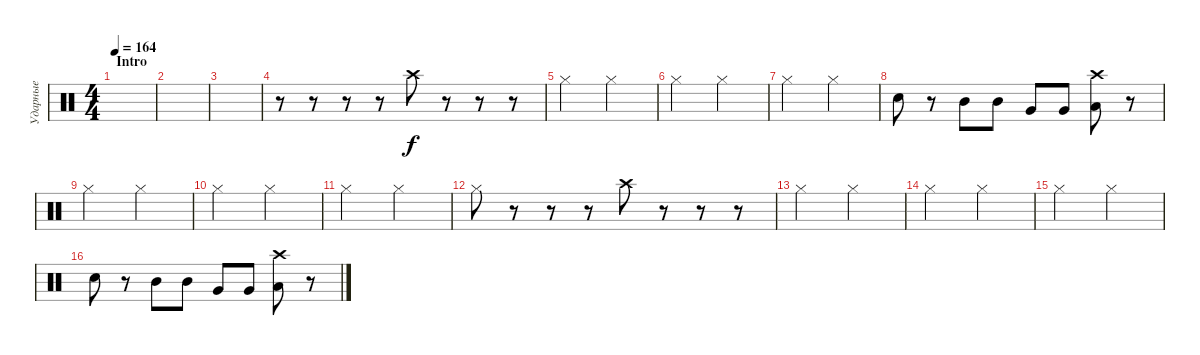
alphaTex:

\track ("Ударные" "Ударные") {instrument percussion}
\staff {score}
\articulation defaults
\ts (4 4)
\section ("" "Intro")
\tempo 164
\clef neutral
\ks c
|
|
|
r.8 r.8 r.8 r.8 "Crash high (hit)".8 r.8 r.8 r.8 |
"Hi-Hat (closed)".2 "Hi-Hat (closed)".2 |
"Hi-Hat (closed)".2 "Hi-Hat (closed)".2 |
"Hi-Hat (closed)".2 "Hi-Hat (closed)".2 |
"Snare (hit) 2".8 r.8 "Mid Tom (hit)".8 "Mid Tom (hit)".8 "Very Low Tom (hit)".8 "Very Low Tom (hit)".8 ("Crash high (hit)" "Low Floor Tom (hit)").8 r.8 |
"Hi-Hat (closed)".2 "Hi-Hat (closed)".2 |
"Hi-Hat (closed)".2 "Hi-Hat (closed)".2 |
"Hi-Hat (closed)".2 "Hi-Hat (closed)".2 |
"Hi-Hat (closed)".8 r.8 r.8 r.8 "Crash high (hit)".8 r.8 r.8 r.8 |
"Hi-Hat (closed)".2 "Hi-Hat (closed)".2 |
"Hi-Hat (closed)".2 "Hi-Hat (closed)".2 |
"Hi-Hat (closed)".2 "Hi-Hat (closed)".2 |
"Snare (hit) 2".8 r.8 "Mid Tom (hit)".8 "Mid Tom (hit)".8 "Very Low Tom (hit)".8 "Very Low Tom (hit)".8 ("Crash high (hit)" "Low Floor Tom (hit)").8 r.8
